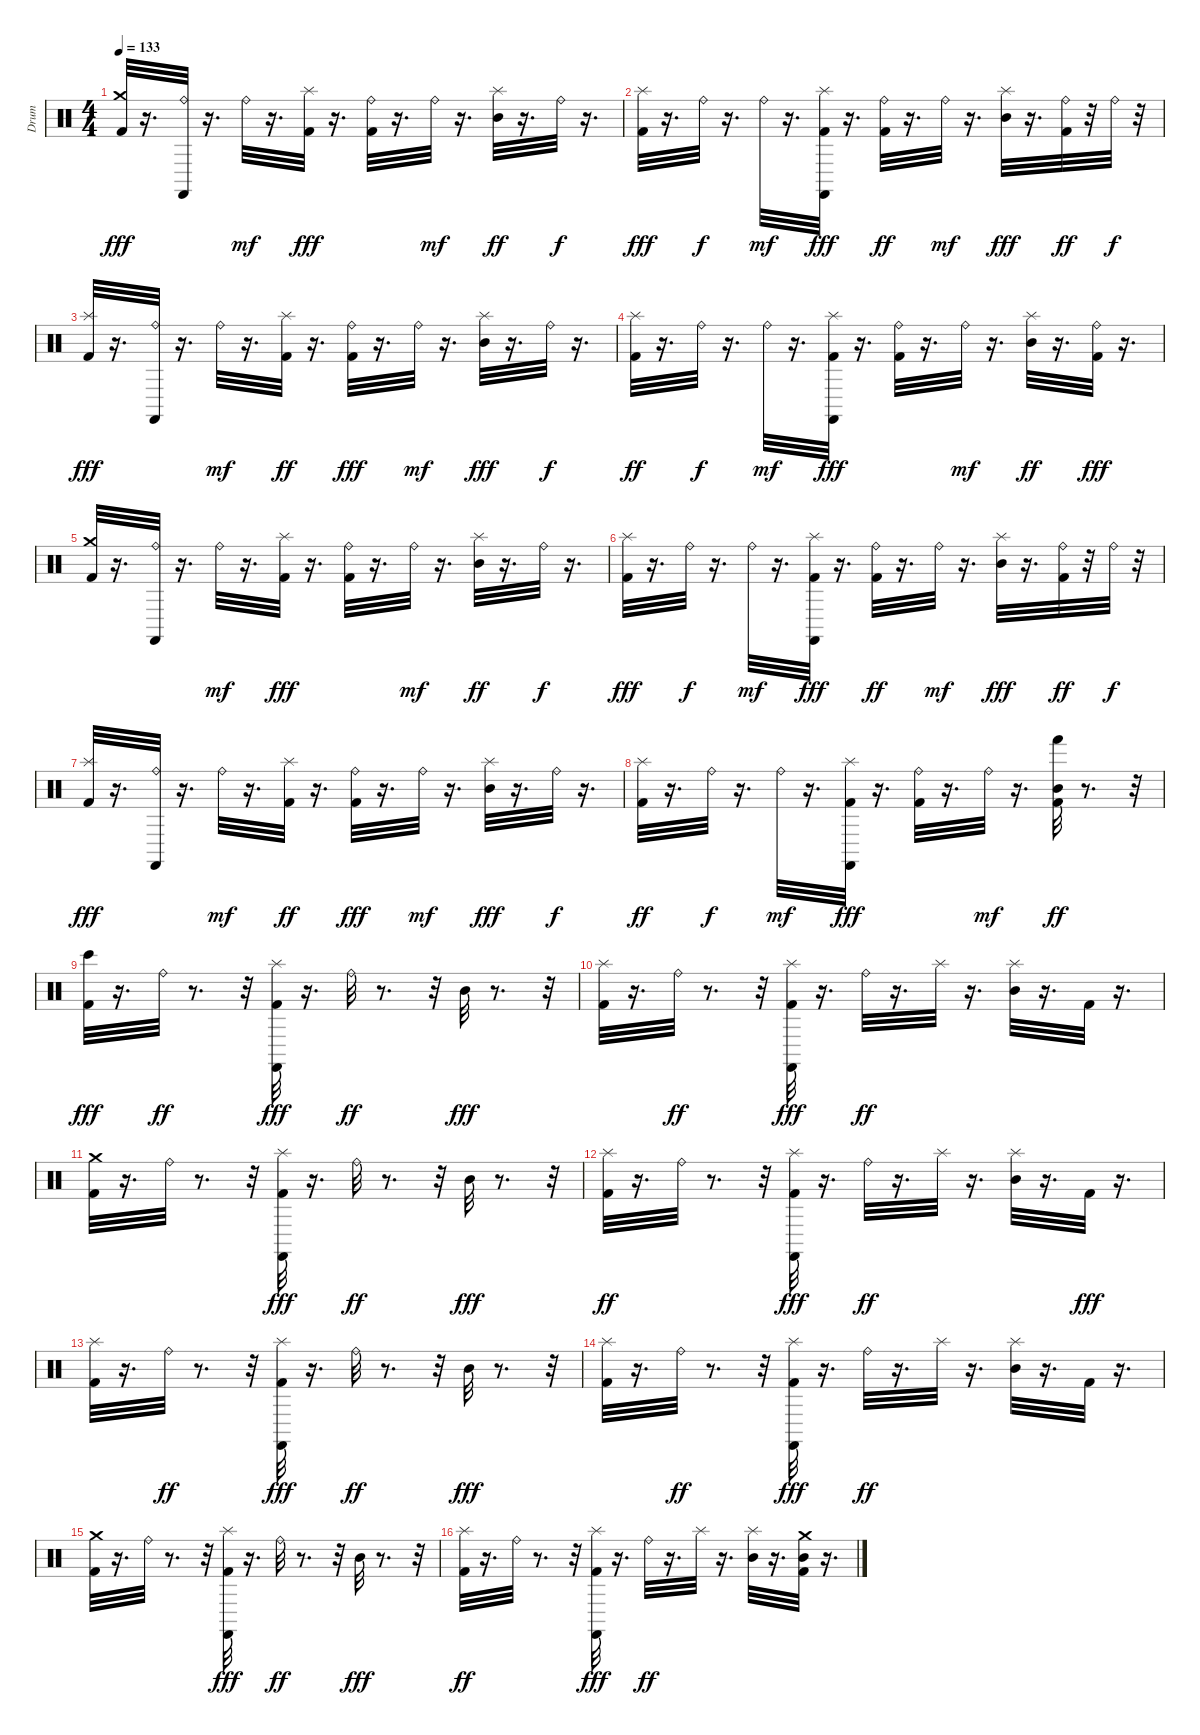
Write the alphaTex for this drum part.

\track ("Drum" "Drum") {instrument percussion}
\staff {score}
\articulation defaults
\ts (4 4)
\tempo 133
\clef neutral
\ks c
("Kick (hit) 2" "Crash medium (hit)").32{dy fff} r.16{d} ("Ride (bell)" "Castanets (hit)").32 r.16{d} "Ride (bell)".32{dy mf} r.16{d} ("Kick (hit) 2" "Splash (hit)").32{dy fff} r.16{d} ("Kick (hit) 2" "Ride (bell)").32 r.16{d} "Ride (bell)".32{dy mf} r.16{d} ("Mid Tom (hit)" "Splash (hit)").32{dy ff} r.16{d} "Ride (bell)".32{dy f} r.16{d} |
("Kick (hit) 2" "Splash (hit)").32{dy fff} r.16{d} "Ride (bell)".32{dy f} r.16{d} "Ride (bell)".32{dy mf} r.16{d} ("Kick (hit) 2" "Splash (hit)" "Castanets (hit)").32{dy fff} r.16{d} ("Kick (hit) 2" "Ride (bell)").32{dy ff} r.16{d} "Ride (bell)".32{dy mf} r.16{d} ("Mid Tom (hit)" "Splash (hit)").32{dy fff} r.16{d} ("Kick (hit) 2" "Ride (bell)").32{dy ff} r.32 "Ride (bell)".32{dy f} r.32 |
("Kick (hit) 2" "Splash (hit)").32{dy fff} r.16{d} ("Ride (bell)" "Castanets (hit)").32 r.16{d} "Ride (bell)".32{dy mf} r.16{d} ("Kick (hit) 2" "Splash (hit)").32{dy ff} r.16{d} ("Kick (hit) 2" "Ride (bell)").32{dy fff} r.16{d} "Ride (bell)".32{dy mf} r.16{d} ("Mid Tom (hit)" "Splash (hit)").32{dy fff} r.16{d} "Ride (bell)".32{dy f} r.16{d} |
("Kick (hit) 2" "Splash (hit)").32{dy ff} r.16{d} "Ride (bell)".32{dy f} r.16{d} "Ride (bell)".32{dy mf} r.16{d} ("Kick (hit) 2" "Splash (hit)" "Castanets (hit)").32{dy fff} r.16{d} ("Kick (hit) 2" "Ride (bell)").32 r.16{d} "Ride (bell)".32{dy mf} r.16{d} ("Mid Tom (hit)" "Splash (hit)").32{dy ff} r.16{d} ("Kick (hit) 2" "Ride (bell)").32{dy fff} r.16{d} |
("Kick (hit) 2" "Crash medium (hit)").32 r.16{d} ("Ride (bell)" "Castanets (hit)").32 r.16{d} "Ride (bell)".32{dy mf} r.16{d} ("Kick (hit) 2" "Splash (hit)").32{dy fff} r.16{d} ("Kick (hit) 2" "Ride (bell)").32 r.16{d} "Ride (bell)".32{dy mf} r.16{d} ("Mid Tom (hit)" "Splash (hit)").32{dy ff} r.16{d} "Ride (bell)".32{dy f} r.16{d} |
("Kick (hit) 2" "Splash (hit)").32{dy fff} r.16{d} "Ride (bell)".32{dy f} r.16{d} "Ride (bell)".32{dy mf} r.16{d} ("Kick (hit) 2" "Splash (hit)" "Castanets (hit)").32{dy fff} r.16{d} ("Kick (hit) 2" "Ride (bell)").32{dy ff} r.16{d} "Ride (bell)".32{dy mf} r.16{d} ("Mid Tom (hit)" "Splash (hit)").32{dy fff} r.16{d} ("Kick (hit) 2" "Ride (bell)").32{dy ff} r.32 "Ride (bell)".32{dy f} r.32 |
("Kick (hit) 2" "Splash (hit)").32{dy fff} r.16{d} ("Ride (bell)" "Castanets (hit)").32 r.16{d} "Ride (bell)".32{dy mf} r.16{d} ("Kick (hit) 2" "Splash (hit)").32{dy ff} r.16{d} ("Kick (hit) 2" "Ride (bell)").32{dy fff} r.16{d} "Ride (bell)".32{dy mf} r.16{d} ("Mid Tom (hit)" "Splash (hit)").32{dy fff} r.16{d} "Ride (bell)".32{dy f} r.16{d} |
("Kick (hit) 2" "Splash (hit)").32{dy ff} r.16{d} "Ride (bell)".32{dy f} r.16{d} "Ride (bell)".32{dy mf} r.16{d} ("Kick (hit) 2" "Splash (hit)" "Castanets (hit)").32{dy fff} r.16{d} ("Kick (hit) 2" "Ride (bell)").32 r.16{d} "Ride (bell)".32{dy mf} r.16{d} ("Kick (hit) 2" "Mid Tom (hit)" "Hand (hit)").32{dy ff} r.8{d} r.32 |
("Kick (hit) 2" "Bongo High (hit)").32{dy fff} r.16{d} "Ride (bell)".32{dy ff} r.8{d} r.32 ("Kick (hit) 2" "Splash (hit)" "Castanets (hit)").32{dy fff} r.16{d} "Ride (bell)".32{dy ff} r.8{d} r.32 "Mid Tom (hit)".32{dy fff} r.8{d} r.32 |
("Kick (hit) 2" "Splash (hit)").32 r.16{d} "Ride (bell)".32{dy ff} r.8{d} r.32 ("Kick (hit) 2" "Splash (hit)" "Castanets (hit)").32{dy fff} r.16{d} "Ride (bell)".32{dy ff} r.16{d} "Splash (hit)".32 r.16{d} ("Mid Tom (hit)" "Splash (hit)").32 r.16{d} "Kick (hit) 2".32 r.16{d} |
("Kick (hit) 2" "Crash medium (hit)").32 r.16{d} "Ride (bell)".32 r.8{d} r.32 ("Kick (hit) 2" "Splash (hit)" "Castanets (hit)").32{dy fff} r.16{d} "Ride (bell)".32{dy ff} r.8{d} r.32 "Mid Tom (hit)".32{dy fff} r.8{d} r.32 |
("Kick (hit) 2" "Splash (hit)").32{dy ff} r.16{d} "Ride (bell)".32 r.8{d} r.32 ("Kick (hit) 2" "Splash (hit)" "Castanets (hit)").32{dy fff} r.16{d} "Ride (bell)".32{dy ff} r.16{d} "Splash (hit)".32 r.16{d} ("Mid Tom (hit)" "Splash (hit)").32 r.16{d} "Kick (hit) 2".32{dy fff} r.16{d} |
("Kick (hit) 2" "Splash (hit)").32 r.16{d} "Ride (bell)".32{dy ff} r.8{d} r.32 ("Kick (hit) 2" "Splash (hit)" "Castanets (hit)").32{dy fff} r.16{d} "Ride (bell)".32{dy ff} r.8{d} r.32 "Mid Tom (hit)".32{dy fff} r.8{d} r.32 |
("Kick (hit) 2" "Splash (hit)").32 r.16{d} "Ride (bell)".32{dy ff} r.8{d} r.32 ("Kick (hit) 2" "Splash (hit)" "Castanets (hit)").32{dy fff} r.16{d} "Ride (bell)".32{dy ff} r.16{d} "Splash (hit)".32 r.16{d} ("Mid Tom (hit)" "Splash (hit)").32 r.16{d} "Kick (hit) 2".32 r.16{d} |
("Kick (hit) 2" "Crash medium (hit)").32 r.16{d} "Ride (bell)".32 r.8{d} r.32 ("Kick (hit) 2" "Splash (hit)" "Castanets (hit)").32{dy fff} r.16{d} "Ride (bell)".32{dy ff} r.8{d} r.32 "Mid Tom (hit)".32{dy fff} r.8{d} r.32 |
("Kick (hit) 2" "Splash (hit)").32{dy ff} r.16{d} "Ride (bell)".32 r.8{d} r.32 ("Kick (hit) 2" "Splash (hit)" "Castanets (hit)").32{dy fff} r.16{d} "Ride (bell)".32{dy ff} r.16{d} "Splash (hit)".32 r.16{d} ("Mid Tom (hit)" "Splash (hit)").32 r.16{d} ("Kick (hit) 2" "Mid Tom (hit)" "Crash medium (hit)").32 r.16{d}
